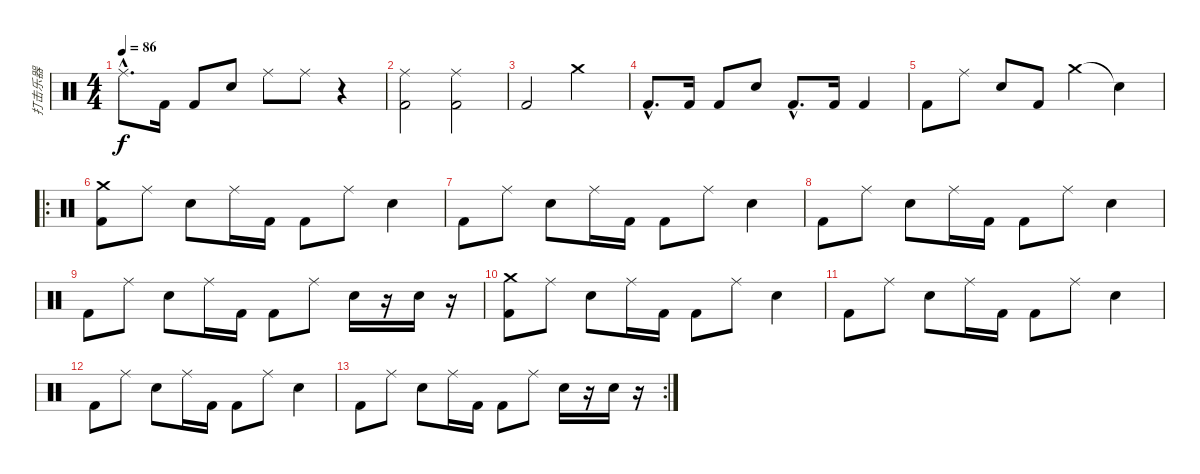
\track ("打击乐器" "打击乐器") {instrument percussion}
\staff {score}
\articulation defaults
\ts (4 4)
\tempo 86
\clef neutral
\ks c "Ride (middle)"{hac}.8{d dy f} "Kick (hit) 2".16 "Kick (hit) 2".8 "Snare (hit) 2".8 "Ride (middle)".8 "Ride (middle)".8
r.4 |
("Ride (middle)" "Kick (hit) 2").2 ("Ride (middle)" "Kick (hit) 2").2 |
"Kick (hit) 2".2 "Crash medium (hit)".2 |
"Kick (hit) 2"{hac}.8{d} "Kick (hit) 2".16 "Kick (hit) 2".8 "Snare (hit) 2".8 "Kick (hit) 2"{hac}.8{d} "Kick (hit) 2".16 "Kick (hit) 2".4 |
"Kick (hit) 2".8 "Ride (middle)".8 "Snare (hit) 2".8 "Kick (hit) 2".8 "Crash medium (hit)".4 "Snare (hit)"{t}.4 |
\ro
("Crash medium (hit)" "Kick (hit) 2").8 "Ride (middle)".8 "Snare (hit) 2".8 "Ride (middle)".16 "Kick (hit) 2".16 "Kick (hit) 2".8 "Ride (middle)".8 "Snare (hit) 2".4 |
"Kick (hit) 2".8 "Ride (middle)".8 "Snare (hit) 2".8 "Ride (middle)".16 "Kick (hit) 2".16 "Kick (hit) 2".8 "Ride (middle)".8 "Snare (hit) 2".4 |
"Kick (hit) 2".8 "Ride (middle)".8 "Snare (hit) 2".8 "Ride (middle)".16 "Kick (hit) 2".16 "Kick (hit) 2".8 "Ride (middle)".8 "Snare (hit) 2".4 |
"Kick (hit) 2".8 "Ride (middle)".8 "Snare (hit) 2".8 "Ride (middle)".16 "Kick (hit) 2".16 "Kick (hit) 2".8 "Ride (middle)".8 "Snare (hit) 2".16 r.16 "Snare (hit) 2".16 r.16 |
("Crash medium (hit)" "Kick (hit) 2").8 "Ride (middle)".8 "Snare (hit) 2".8 "Ride (middle)".16 "Kick (hit) 2".16 "Kick (hit) 2".8 "Ride (middle)".8 "Snare (hit) 2".4 |
"Kick (hit) 2".8 "Ride (middle)".8 "Snare (hit) 2".8 "Ride (middle)".16 "Kick (hit) 2".16 "Kick (hit) 2".8 "Ride (middle)".8 "Snare (hit) 2".4 |
"Kick (hit) 2".8 "Ride (middle)".8 "Snare (hit) 2".8 "Ride (middle)".16 "Kick (hit) 2".16 "Kick (hit) 2".8 "Ride (middle)".8 "Snare (hit) 2".4 |
\rc 2 "Kick (hit) 2".8 "Ride (middle)".8 "Snare (hit) 2".8 "Ride (middle)".16 "Kick (hit) 2".16 "Kick (hit) 2".8 "Ride (middle)".8 "Snare (hit) 2".16
r.16 "Snare (hit) 2".16 r.16
